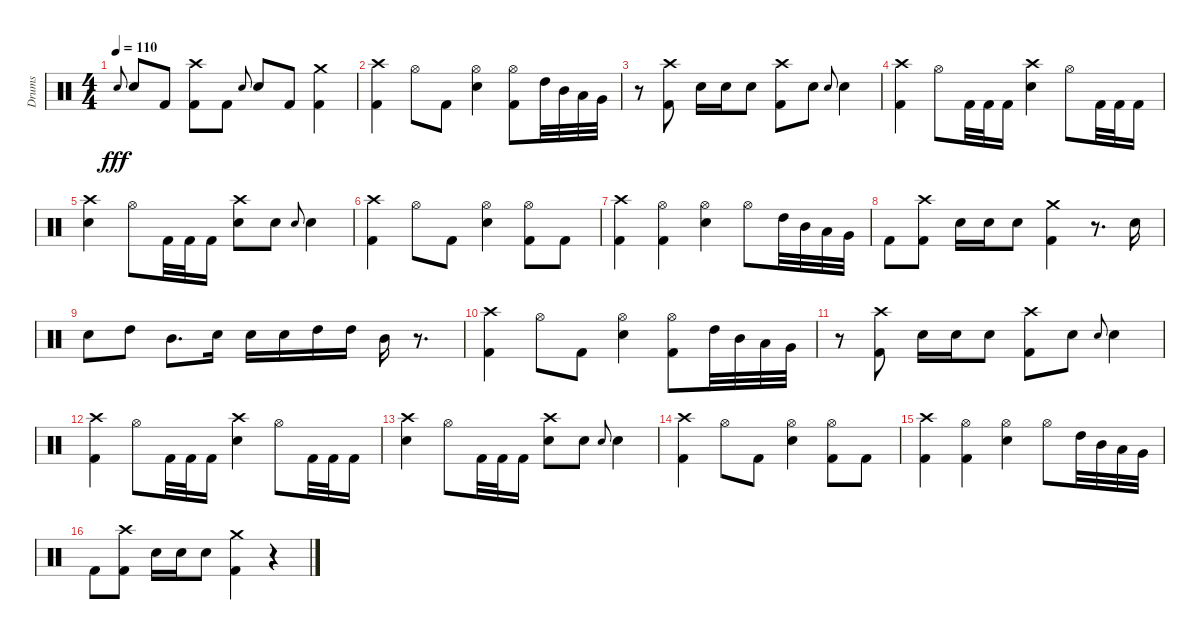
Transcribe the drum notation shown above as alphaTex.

\track ("Drums" "Drums") {instrument percussion}
\staff {score}
\articulation defaults
\ts (4 4)
\tempo 110
\clef neutral
\ks c "Snare (hit) 2".8{gr onbeat dy fff} "Snare (hit) 2".8 "Kick (hit) 2".8
("Kick (hit) 2" "Crash high (hit)").8 "Kick (hit) 2".8 "Snare (hit) 2".8{gr onbeat} "Snare (hit) 2".8 "Kick (hit) 2".8 ("Kick (hit) 2" "Crash medium (hit)").4 |
("Crash high (hit)" "Kick (hit) 2").4 "Hi-Hat (open)".8 "Kick (hit) 2".8 ("Hi-Hat (open)" "Snare (hit) 2").4 ("Hi-Hat (open)" "Kick (hit) 2").8 "High Tom (hit)".32 "Mid Tom (hit)".32 "Low Tom (hit)".32 "Very Low Tom (hit)".32 |
r.8 ("Kick (hit) 2" "Crash high (hit)").8 "Snare (hit) 2".16 "Snare (hit) 2".16 "Snare (hit) 2".8 ("Crash high (hit)" "Kick (hit) 2").8 "Snare (hit) 2".8 "Snare (hit) 2".8{gr onbeat} "Snare (hit) 2".4 |
("Kick (hit) 2" "Crash high (hit)").4 "Hi-Hat (open)".8 "Kick (hit) 2".32 "Kick (hit) 2".32 "Kick (hit) 2".16 ("Snare (hit) 2" "Crash high (hit)").4 "Hi-Hat (open)".8 "Kick (hit) 2".32 "Kick (hit) 2".32 "Kick (hit) 2".16 |
("Snare (hit) 2" "Crash high (hit)").4 "Hi-Hat (open)".8 "Kick (hit) 2".32 "Kick (hit) 2".32 "Kick (hit) 2".16 ("Snare (hit) 2" "Crash high (hit)").8 "Snare (hit) 2".8 "Snare (hit) 2".8{gr onbeat} "Snare (hit) 2".4 |
("Crash high (hit)" "Kick (hit) 2").4 "Hi-Hat (open)".8 "Kick (hit) 2".8 ("Hi-Hat (open)" "Snare (hit) 2").4 ("Hi-Hat (open)" "Kick (hit) 2").8 "Kick (hit) 2".8 |
("Kick (hit) 2" "Crash high (hit)").4 ("Hi-Hat (open)" "Kick (hit) 2").4 ("Hi-Hat (open)" "Snare (hit) 2").4 "Hi-Hat (open)".8 "High Tom (hit)".32 "Mid Tom (hit)".32 "Low Tom (hit)".32 "Very Low Tom (hit)".32 |
"Kick (hit) 2".8 ("Kick (hit) 2" "Crash high (hit)").8 "Snare (hit) 2".16 "Snare (hit) 2".16 "Snare (hit) 2".8 ("Kick (hit) 2" "Crash medium (hit)").4 r.8{d} "Snare (hit) 2".16 |
"Snare (hit) 2".8 "High Tom (hit)".8 "Mid Tom (hit)".8{d} "Snare (hit) 2".16 "Snare (hit) 2".16 "Snare (hit) 2".16 "High Tom (hit)".16 "High Tom (hit)".16 "Mid Tom (hit)".16 r.8{d} |
("Crash high (hit)" "Kick (hit) 2").4 "Hi-Hat (open)".8 "Kick (hit) 2".8 ("Hi-Hat (open)" "Snare (hit) 2").4 ("Hi-Hat (open)" "Kick (hit) 2").8 "High Tom (hit)".32 "Mid Tom (hit)".32 "Low Tom (hit)".32 "Very Low Tom (hit)".32 |
r.8 ("Kick (hit) 2" "Crash high (hit)").8 "Snare (hit) 2".16 "Snare (hit) 2".16 "Snare (hit) 2".8 ("Crash high (hit)" "Kick (hit) 2").8 "Snare (hit) 2".8 "Snare (hit) 2".8{gr onbeat} "Snare (hit) 2".4 |
("Kick (hit) 2" "Crash high (hit)").4 "Hi-Hat (open)".8 "Kick (hit) 2".32 "Kick (hit) 2".32 "Kick (hit) 2".16 ("Snare (hit) 2" "Crash high (hit)").4 "Hi-Hat (open)".8 "Kick (hit) 2".32 "Kick (hit) 2".32 "Kick (hit) 2".16 |
("Snare (hit) 2" "Crash high (hit)").4 "Hi-Hat (open)".8 "Kick (hit) 2".32 "Kick (hit) 2".32 "Kick (hit) 2".16 ("Snare (hit) 2" "Crash high (hit)").8 "Snare (hit) 2".8 "Snare (hit) 2".8{gr onbeat} "Snare (hit) 2".4 |
("Crash high (hit)" "Kick (hit) 2").4 "Hi-Hat (open)".8 "Kick (hit) 2".8 ("Hi-Hat (open)" "Snare (hit) 2").4 ("Hi-Hat (open)" "Kick (hit) 2").8 "Kick (hit) 2".8 |
("Kick (hit) 2" "Crash high (hit)").4 ("Hi-Hat (open)" "Kick (hit) 2").4 ("Hi-Hat (open)" "Snare (hit) 2").4 "Hi-Hat (open)".8 "High Tom (hit)".32 "Mid Tom (hit)".32 "Low Tom (hit)".32 "Very Low Tom (hit)".32 |
"Kick (hit) 2".8 ("Kick (hit) 2" "Crash high (hit)").8 "Snare (hit) 2".16 "Snare (hit) 2".16 "Snare (hit) 2".8 ("Kick (hit) 2" "Crash medium (hit)").4 r.4
